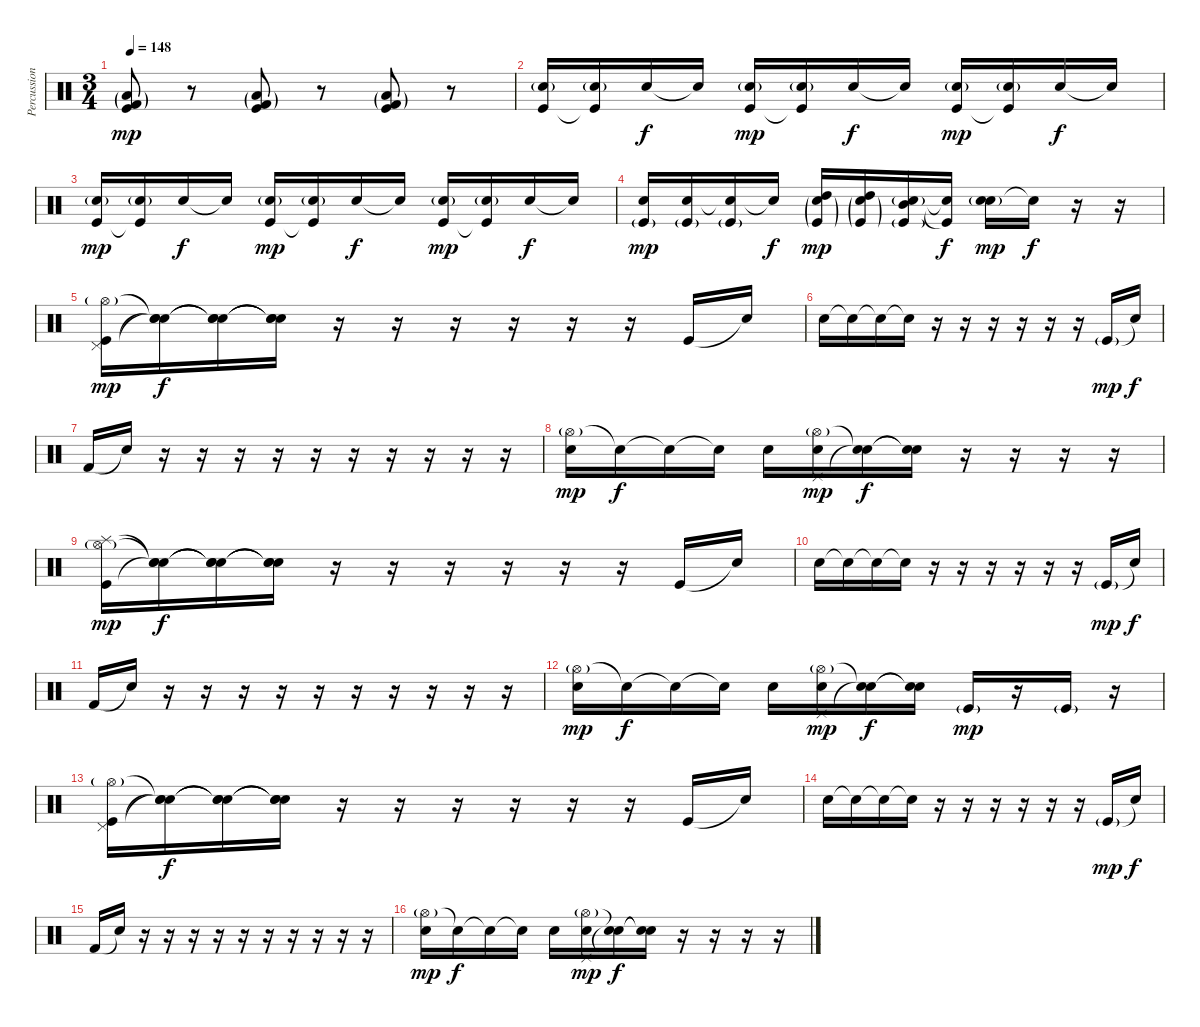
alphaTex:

\track ("Percussion" "Percussion") {instrument percussion}
\staff {score}
\articulation defaults
\ts (3 4)
\tempo 148
\clef neutral
\ks c
("Low Floor Tom (hit)"{g} "Kick (hit) 2"{g} "Kick (hit)").8{dy mp} r.8 ("Low Floor Tom (hit)"{g} "Kick (hit) 2"{g} "Kick (hit)").8 r.8 ("Low Floor Tom (hit)"{g} "Kick (hit) 2"{g} "Kick (hit)").8 r.8 |
("Snare (hit) 2"{g} "Kick (hit)").16{volume 10} ("Snare (hit) 2"{g} "Kick (hit)"{t}).16 "Snare (hit) 2".16{dy f} "Snare (hit)"{t}.16 ("Snare (hit) 2"{g} "Kick (hit)").16{dy mp} ("Snare (hit) 2"{g} "Kick (hit)"{t}).16 "Snare (hit) 2".16{dy f} "Snare (hit)"{t}.16 ("Snare (hit) 2"{g} "Kick (hit)").16{dy mp} ("Snare (hit) 2"{g} "Kick (hit)"{t}).16 "Snare (hit) 2".16{dy f} "Snare (hit)"{t}.16 |
("Snare (hit) 2"{g} "Kick (hit)").16{dy mp} ("Snare (hit) 2"{g} "Kick (hit)"{t}).16 "Snare (hit) 2".16{dy f} "Snare (hit) 2"{t}.16 ("Snare (hit) 2"{g} "Kick (hit)").16{dy mp} ("Snare (hit) 2"{g} "Kick (hit)"{t}).16 "Snare (hit) 2".16{dy f} "Snare (hit) 2"{t}.16 ("Snare (hit) 2"{g} "Kick (hit)").16{dy mp} ("Snare (hit) 2"{g} "Kick (hit)"{t}).16 "Snare (hit) 2".16{dy f} "Snare (hit) 2"{t}.16 |
("Snare (hit) 2" "Kick (hit)"{g}).16{dy mp} ("Snare (hit) 2" "Kick (hit)"{g}).16 ("Snare (hit)"{t} "Kick (hit)"{g}).16 "Snare (hit)"{t}.16{dy f} ("Snare (hit) 2"{g} "High Tom (hit)" "Kick (hit)"{g}).16{dy mp} ("Snare (hit) 2"{g} "High Tom (hit)" "Kick (hit)"{g}).16 ("Snare (hit) 2"{g} "Mid Tom (hit)" "Kick (hit)"{g}).16 ("Snare (hit) 2"{t} "Kick (hit)"{t}).16{dy f} ("Electric Snare (hit)"{g} "Snare (hit) 2").16{dy mp} "Snare (hit)"{t}.16{dy f} r.16 r.16 |
("Pedal Hi-Hat (hit)" "Hi-Hat (open)"{g} "Kick (hit)").16{dy mp volume 10} ("Snare (hit)"{t} "Snare (hit)"{t} "Snare (hit)"{t}).16{dy f} ("Snare (hit)"{t} "Snare (hit)"{t} "Snare (hit)"{t}).16 ("Snare (hit)"{t} "Snare (hit)"{t} "Snare (hit)"{t}).16 r.16 r.16 r.16 r.16 r.16 r.16 "Kick (hit)".16 "Snare (hit)"{t}.16 |
"Snare (hit) 2".16 "Snare (hit)"{t}.16 "Snare (hit)"{t}.16 "Snare (hit)"{t}.16 r.16 r.16 r.16 r.16 r.16 r.16 "Kick (hit)"{g}.16{dy mp} "Snare (hit)"{t}.16{dy f} |
"Kick (hit) 2".16 "Snare (hit)"{t}.16 r.16 r.16 r.16 r.16 r.16 r.16 r.16 r.16 r.16 r.16 |
("Hi-Hat (open)"{g} "Snare (hit) 2").16{dy mp} "Snare (hit)"{t}.16{dy f} "Snare (hit) 2"{t}.16 "Snare (hit) 2"{t}.16 "Snare (hit) 2".16 ("Pedal Hi-Hat (hit)" "Hi-Hat (open)"{g} "Snare (hit) 2").16{dy mp} ("Snare (hit)"{t} "Snare (hit)"{t}).16{dy f} ("Snare (hit)"{t} "Snare (hit)"{t}).16 r.16 r.16 r.16 r.16 |
("Splash (hit)" "Hi-Hat (open)"{g} "Kick (hit)").16{dy mp} ("Snare (hit)"{t} "Snare (hit)"{t} "Snare (hit)"{t}).16{dy f} ("Snare (hit)"{t} "Snare (hit)"{t} "Snare (hit)"{t}).16 ("Snare (hit)"{t} "Snare (hit)"{t} "Snare (hit)"{t}).16 r.16 r.16 r.16 r.16 r.16 r.16 "Kick (hit)".16 "Snare (hit)"{t}.16 |
"Snare (hit) 2".16 "Snare (hit)"{t}.16 "Snare (hit)"{t}.16 "Snare (hit)"{t}.16 r.16 r.16 r.16 r.16 r.16 r.16 "Kick (hit)"{g}.16{dy mp} "Snare (hit)"{t}.16{dy f} |
"Kick (hit) 2".16 "Snare (hit)"{t}.16 r.16 r.16 r.16 r.16 r.16 r.16 r.16 r.16 r.16 r.16 |
("Hi-Hat (open)"{g} "Snare (hit) 2").16{dy mp} "Snare (hit)"{t}.16{dy f} "Snare (hit) 2"{t}.16 "Snare (hit) 2"{t}.16 "Snare (hit) 2".16 ("Pedal Hi-Hat (hit)" "Hi-Hat (open)"{g} "Snare (hit) 2").16{dy mp} ("Snare (hit)"{t} "Snare (hit)"{t}).16{dy f} ("Snare (hit)"{t} "Snare (hit)"{t}).16 "Kick (hit)"{g}.16{dy mp} r.16 "Kick (hit)"{g}.16 r.16 |
("Pedal Hi-Hat (hit)" "Hi-Hat (open)"{g} "Kick (hit)").16 ("Snare (hit)"{t} "Snare (hit)"{t} "Snare (hit)"{t}).16{dy f} ("Snare (hit)"{t} "Snare (hit)"{t} "Snare (hit)"{t}).16 ("Snare (hit)"{t} "Snare (hit)"{t} "Snare (hit)"{t}).16 r.16 r.16 r.16 r.16 r.16 r.16 "Kick (hit)".16 "Snare (hit)"{t}.16 |
"Snare (hit) 2".16 "Snare (hit)"{t}.16 "Snare (hit)"{t}.16 "Snare (hit)"{t}.16 r.16 r.16 r.16 r.16 r.16 r.16 "Kick (hit)"{g}.16{dy mp} "Snare (hit)"{t}.16{dy f} |
"Kick (hit) 2".16 "Snare (hit)"{t}.16 r.16 r.16 r.16 r.16 r.16 r.16 r.16 r.16 r.16 r.16 |
("Hi-Hat (open)"{g} "Snare (hit) 2").16{dy mp} "Snare (hit)"{t}.16{dy f} "Snare (hit) 2"{t}.16 "Snare (hit) 2"{t}.16 "Snare (hit) 2".16 ("Pedal Hi-Hat (hit)" "Hi-Hat (open)"{g} "Snare (hit) 2").16{dy mp} ("Snare (hit)"{t} "Snare (hit)"{t}).16{dy f} ("Snare (hit)"{t} "Snare (hit)"{t}).16 r.16 r.16 r.16 r.16
